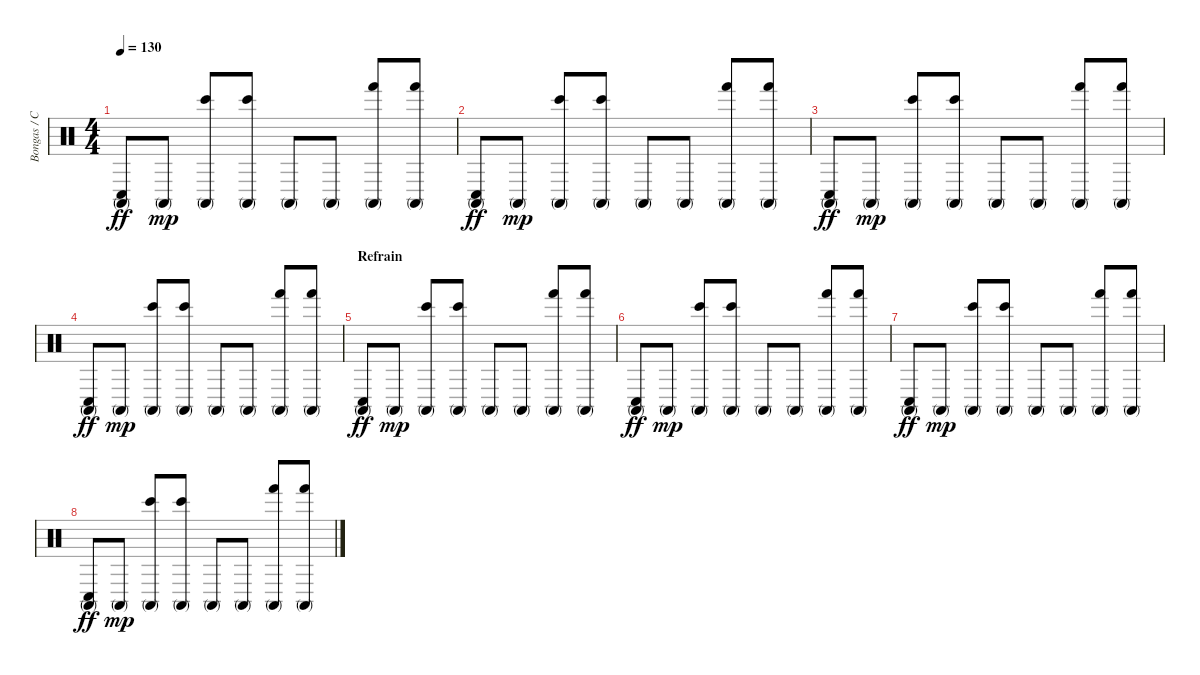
\track ("Bongas / Congos" "Bongas / C") {instrument percussion}
\staff {score}
\articulation defaults
\ts (4 4)
\tempo 130
\clef neutral
\ks c
("Conga high (mute)" "Conga low (hit)").8{dy ff} "Conga high (mute)".8{dy mp} ("Conga high (mute)" "Bongo High (hit)").8 ("Conga high (mute)" "Bongo High (hit)").8 "Conga high (mute)".8 "Conga high (mute)".8 ("Conga high (mute)" "Hand (hit)").8 ("Conga high (mute)" "Hand (hit)").8 |
("Conga high (mute)" "Conga low (hit)").8{dy ff} "Conga high (mute)".8{dy mp} ("Conga high (mute)" "Bongo High (hit)").8 ("Conga high (mute)" "Bongo High (hit)").8 "Conga high (mute)".8 "Conga high (mute)".8 ("Conga high (mute)" "Hand (hit)").8 ("Conga high (mute)" "Hand (hit)").8 |
("Conga high (mute)" "Conga low (hit)").8{dy ff} "Conga high (mute)".8{dy mp} ("Conga high (mute)" "Bongo High (hit)").8 ("Conga high (mute)" "Bongo High (hit)").8 "Conga high (mute)".8 "Conga high (mute)".8 ("Conga high (mute)" "Hand (hit)").8 ("Conga high (mute)" "Hand (hit)").8 |
("Conga high (mute)" "Conga low (hit)").8{dy ff} "Conga high (mute)".8{dy mp} ("Conga high (mute)" "Bongo High (hit)").8 ("Conga high (mute)" "Bongo High (hit)").8 "Conga high (mute)".8 "Conga high (mute)".8 ("Conga high (mute)" "Hand (hit)").8 ("Conga high (mute)" "Hand (hit)").8 |
\section ("" "Refrain")
("Conga high (mute)" "Conga low (hit)").8{dy ff} "Conga high (mute)".8{dy mp} ("Conga high (mute)" "Bongo High (hit)").8 ("Conga high (mute)" "Bongo High (hit)").8 "Conga high (mute)".8 "Conga high (mute)".8 ("Conga high (mute)" "Hand (hit)").8 ("Conga high (mute)" "Hand (hit)").8 |
("Conga high (mute)" "Conga low (hit)").8{dy ff} "Conga high (mute)".8{dy mp} ("Conga high (mute)" "Bongo High (hit)").8 ("Conga high (mute)" "Bongo High (hit)").8 "Conga high (mute)".8 "Conga high (mute)".8 ("Conga high (mute)" "Hand (hit)").8 ("Conga high (mute)" "Hand (hit)").8 |
("Conga high (mute)" "Conga low (hit)").8{dy ff} "Conga high (mute)".8{dy mp} ("Conga high (mute)" "Bongo High (hit)").8 ("Conga high (mute)" "Bongo High (hit)").8 "Conga high (mute)".8 "Conga high (mute)".8 ("Conga high (mute)" "Hand (hit)").8 ("Conga high (mute)" "Hand (hit)").8 |
("Conga high (mute)" "Conga low (hit)").8{dy ff} "Conga high (mute)".8{dy mp} ("Conga high (mute)" "Bongo High (hit)").8 ("Conga high (mute)" "Bongo High (hit)").8 "Conga high (mute)".8 "Conga high (mute)".8 ("Conga high (mute)" "Hand (hit)").8 ("Conga high (mute)" "Hand (hit)").8
